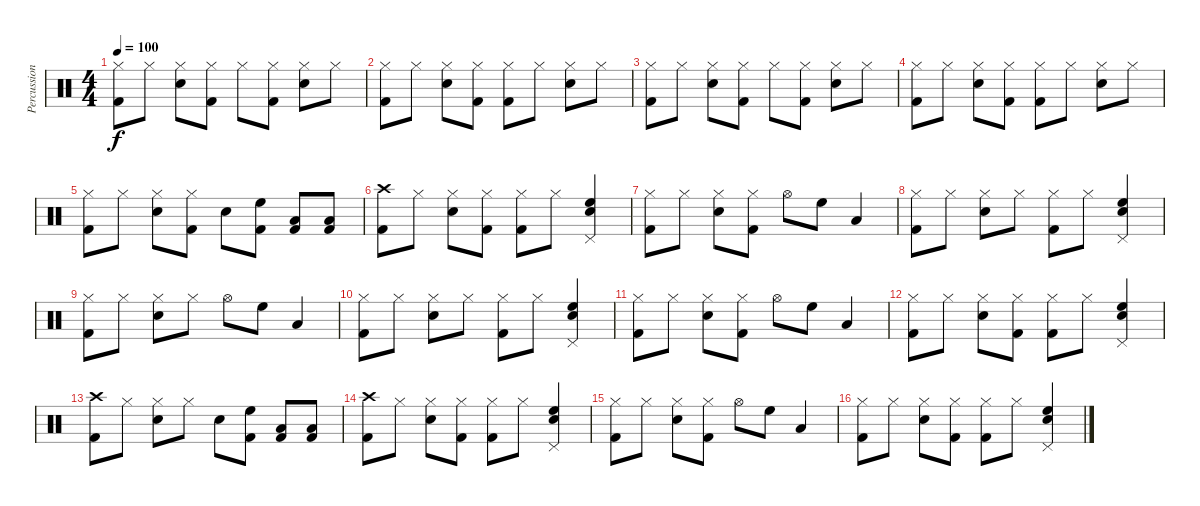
\track ("Percussion" "Percussion") {instrument percussion}
\staff {score}
\articulation defaults
\ts (4 4)
\tempo 100
\clef neutral
\ks c
("Hi-Hat (closed)" "Kick (hit) 2").8{dy f} "Hi-Hat (closed)".8 ("Hi-Hat (closed)" "Snare (hit) 2").8 ("Hi-Hat (closed)" "Kick (hit) 2").8 "Hi-Hat (closed)".8 ("Hi-Hat (closed)" "Kick (hit) 2").8 ("Hi-Hat (closed)" "Snare (hit) 2").8 "Hi-Hat (closed)".8 |
("Hi-Hat (closed)" "Kick (hit) 2").8 "Hi-Hat (closed)".8 ("Hi-Hat (closed)" "Snare (hit) 2").8 ("Hi-Hat (closed)" "Kick (hit) 2").8 ("Hi-Hat (closed)" "Kick (hit) 2").8 "Hi-Hat (closed)".8 ("Hi-Hat (closed)" "Snare (hit) 2").8 "Hi-Hat (closed)".8 |
("Hi-Hat (closed)" "Kick (hit) 2").8 "Hi-Hat (closed)".8 ("Hi-Hat (closed)" "Snare (hit) 2").8 ("Hi-Hat (closed)" "Kick (hit) 2").8 "Hi-Hat (closed)".8 ("Hi-Hat (closed)" "Kick (hit) 2").8 ("Hi-Hat (closed)" "Snare (hit) 2").8 "Hi-Hat (closed)".8 |
("Hi-Hat (closed)" "Kick (hit) 2").8 "Hi-Hat (closed)".8 ("Hi-Hat (closed)" "Snare (hit) 2").8 ("Hi-Hat (closed)" "Kick (hit) 2").8 ("Hi-Hat (closed)" "Kick (hit) 2").8 "Hi-Hat (closed)".8 ("Hi-Hat (closed)" "Snare (hit) 2").8 "Hi-Hat (closed)".8 |
("Hi-Hat (closed)" "Kick (hit) 2").8 "Hi-Hat (closed)".8 ("Hi-Hat (closed)" "Snare (hit) 2").8 ("Hi-Hat (closed)" "Kick (hit) 2").8 "Snare (hit) 2".8 ("High Floor Tom (hit)" "Kick (hit) 2").8 ("Low Tom (hit)" "Kick (hit) 2").8 ("Low Floor Tom (hit)" "Kick (hit) 2").8 |
("Crash high (hit)" "Kick (hit) 2").8 "Hi-Hat (closed)".8 ("Hi-Hat (closed)" "Snare (hit) 2").8 ("Hi-Hat (closed)" "Kick (hit) 2").8 ("Hi-Hat (closed)" "Kick (hit) 2").8 "Hi-Hat (closed)".8 ("Pedal Hi-Hat (hit)" "High Floor Tom (hit)" "Snare (hit) 2").4 |
("Hi-Hat (closed)" "Kick (hit) 2").8 "Hi-Hat (closed)".8 ("Hi-Hat (closed)" "Snare (hit) 2").8 ("Hi-Hat (closed)" "Kick (hit) 2").8 "Hi-Hat (open)".8 "High Floor Tom (hit)".8 "Low Tom (hit)".4 |
("Hi-Hat (closed)" "Kick (hit) 2").8 "Hi-Hat (closed)".8 ("Hi-Hat (closed)" "Snare (hit) 2").8 "Hi-Hat (closed)".8 ("Hi-Hat (closed)" "Kick (hit) 2").8 "Hi-Hat (closed)".8 ("Pedal Hi-Hat (hit)" "High Floor Tom (hit)" "Snare (hit) 2").4 |
("Hi-Hat (closed)" "Kick (hit) 2").8 "Hi-Hat (closed)".8 ("Hi-Hat (closed)" "Snare (hit) 2").8 "Hi-Hat (closed)".8 "Hi-Hat (open)".8 "High Floor Tom (hit)".8 "Low Tom (hit)".4 |
("Hi-Hat (closed)" "Kick (hit) 2").8 "Hi-Hat (closed)".8 ("Hi-Hat (closed)" "Snare (hit) 2").8 "Hi-Hat (closed)".8 ("Hi-Hat (closed)" "Kick (hit) 2").8 "Hi-Hat (closed)".8 ("Pedal Hi-Hat (hit)" "High Floor Tom (hit)" "Snare (hit) 2").4 |
("Hi-Hat (closed)" "Kick (hit) 2").8 "Hi-Hat (closed)".8 ("Hi-Hat (closed)" "Snare (hit) 2").8 ("Hi-Hat (closed)" "Kick (hit) 2").8 "Hi-Hat (open)".8 "High Floor Tom (hit)".8 "Low Tom (hit)".4 |
("Hi-Hat (closed)" "Kick (hit) 2").8 "Hi-Hat (closed)".8 ("Hi-Hat (closed)" "Snare (hit) 2").8 ("Hi-Hat (closed)" "Kick (hit) 2").8 ("Hi-Hat (closed)" "Kick (hit) 2").8 "Hi-Hat (closed)".8 ("Pedal Hi-Hat (hit)" "High Floor Tom (hit)" "Snare (hit) 2").4 |
("Crash high (hit)" "Kick (hit) 2").8 "Hi-Hat (closed)".8 ("Hi-Hat (closed)" "Snare (hit) 2").8 "Hi-Hat (closed)".8 "Snare (hit) 2".8 ("High Floor Tom (hit)" "Kick (hit) 2").8 ("Low Tom (hit)" "Kick (hit) 2").8 ("Low Floor Tom (hit)" "Kick (hit) 2").8 |
("Crash high (hit)" "Kick (hit) 2").8 "Hi-Hat (closed)".8 ("Hi-Hat (closed)" "Snare (hit) 2").8 ("Hi-Hat (closed)" "Kick (hit) 2").8 ("Hi-Hat (closed)" "Kick (hit) 2").8 "Hi-Hat (closed)".8 ("Pedal Hi-Hat (hit)" "High Floor Tom (hit)" "Snare (hit) 2").4 |
("Hi-Hat (closed)" "Kick (hit) 2").8 "Hi-Hat (closed)".8 ("Hi-Hat (closed)" "Snare (hit) 2").8 ("Hi-Hat (closed)" "Kick (hit) 2").8 "Hi-Hat (open)".8 "High Floor Tom (hit)".8 "Low Tom (hit)".4 |
("Hi-Hat (closed)" "Kick (hit) 2").8 "Hi-Hat (closed)".8 ("Hi-Hat (closed)" "Snare (hit) 2").8 ("Hi-Hat (closed)" "Kick (hit) 2").8 ("Hi-Hat (closed)" "Kick (hit) 2").8 "Hi-Hat (closed)".8 ("Pedal Hi-Hat (hit)" "High Floor Tom (hit)" "Snare (hit) 2").4
